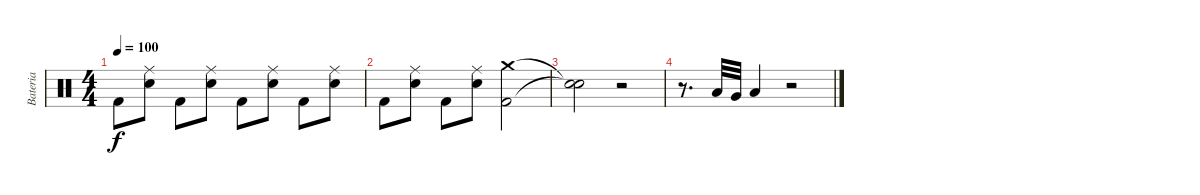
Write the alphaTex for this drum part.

\track ("Bateria" "Bateria") {instrument percussion}
\staff {score}
\articulation defaults
\ts (4 4)
\tempo 100
\clef neutral
\ks c "Kick (hit) 2".8{dy f}
("Ride (middle)" "Snare (hit) 2").8 "Kick (hit) 2".8 ("Ride (middle)" "Snare (hit) 2").8 "Kick (hit) 2".8 ("Ride (middle)" "Snare (hit) 2").8 "Kick (hit) 2".8 ("Ride (middle)" "Snare (hit) 2").8 |
"Kick (hit) 2".8 ("Ride (middle)" "Snare (hit) 2").8 "Kick (hit) 2".8 ("Ride (middle)" "Snare (hit) 2").8 ("Crash medium (hit)" "Kick (hit) 2").2 |
("Snare (hit)"{t} "Snare (hit)"{t}).2 r.2 |
r.8{d} "Low Tom (hit)".32 "Very Low Tom (hit)".32 "Low Floor Tom (hit)".4 r.2
